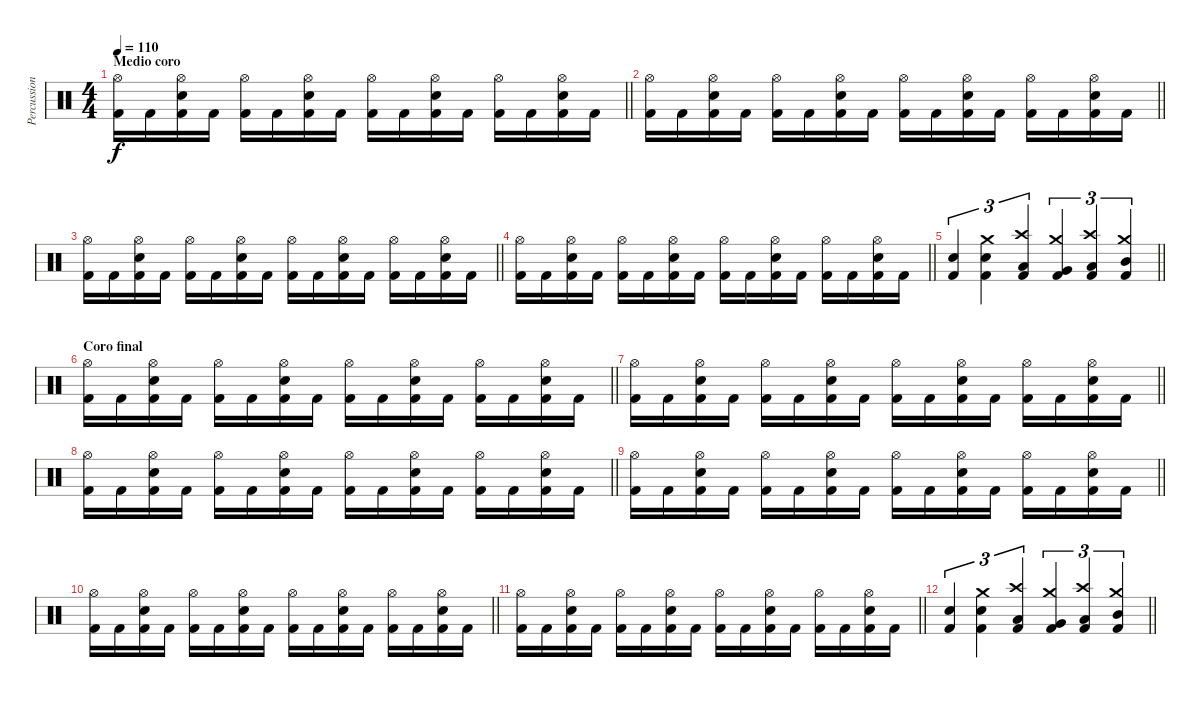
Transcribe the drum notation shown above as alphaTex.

\track ("Percussion" "Percussion") {instrument percussion}
\staff {score}
\articulation defaults
\ts (4 4)
\section ("" "Medio coro")
\tempo 110
\clef neutral
\barLineRight lightlight
\ks c
("Hi-Hat (open)" "Kick (hit) 2").16{dy f} "Kick (hit) 2".16 ("Hi-Hat (open)" "Electric Snare (hit)" "Kick (hit) 2").16 "Kick (hit) 2".16 ("Hi-Hat (open)" "Kick (hit) 2").16 "Kick (hit) 2".16 ("Hi-Hat (open)" "Electric Snare (hit)" "Kick (hit) 2").16 "Kick (hit) 2".16 ("Hi-Hat (open)" "Kick (hit) 2").16 "Kick (hit) 2".16 ("Hi-Hat (open)" "Electric Snare (hit)" "Kick (hit) 2").16 "Kick (hit) 2".16 ("Hi-Hat (open)" "Kick (hit) 2").16 "Kick (hit) 2".16 ("Hi-Hat (open)" "Electric Snare (hit)" "Kick (hit) 2").16 "Kick (hit) 2".16 |
\barLineRight lightlight
("Hi-Hat (open)" "Kick (hit) 2").16 "Kick (hit) 2".16 ("Hi-Hat (open)" "Electric Snare (hit)" "Kick (hit) 2").16 "Kick (hit) 2".16 ("Hi-Hat (open)" "Kick (hit) 2").16 "Kick (hit) 2".16 ("Hi-Hat (open)" "Electric Snare (hit)" "Kick (hit) 2").16 "Kick (hit) 2".16 ("Hi-Hat (open)" "Kick (hit) 2").16 "Kick (hit) 2".16 ("Hi-Hat (open)" "Electric Snare (hit)" "Kick (hit) 2").16 "Kick (hit) 2".16 ("Hi-Hat (open)" "Kick (hit) 2").16 "Kick (hit) 2".16 ("Hi-Hat (open)" "Electric Snare (hit)" "Kick (hit) 2").16 "Kick (hit) 2".16 |
\barLineRight lightlight
("Hi-Hat (open)" "Kick (hit) 2").16 "Kick (hit) 2".16 ("Hi-Hat (open)" "Electric Snare (hit)" "Kick (hit) 2").16 "Kick (hit) 2".16 ("Hi-Hat (open)" "Kick (hit) 2").16 "Kick (hit) 2".16 ("Hi-Hat (open)" "Electric Snare (hit)" "Kick (hit) 2").16 "Kick (hit) 2".16 ("Hi-Hat (open)" "Kick (hit) 2").16 "Kick (hit) 2".16 ("Hi-Hat (open)" "Electric Snare (hit)" "Kick (hit) 2").16 "Kick (hit) 2".16 ("Hi-Hat (open)" "Kick (hit) 2").16 "Kick (hit) 2".16 ("Hi-Hat (open)" "Electric Snare (hit)" "Kick (hit) 2").16 "Kick (hit) 2".16 |
\barLineRight lightlight
("Hi-Hat (open)" "Kick (hit) 2").16 "Kick (hit) 2".16 ("Hi-Hat (open)" "Electric Snare (hit)" "Kick (hit) 2").16 "Kick (hit) 2".16 ("Hi-Hat (open)" "Kick (hit) 2").16 "Kick (hit) 2".16 ("Hi-Hat (open)" "Electric Snare (hit)" "Kick (hit) 2").16 "Kick (hit) 2".16 ("Hi-Hat (open)" "Kick (hit) 2").16 "Kick (hit) 2".16 ("Hi-Hat (open)" "Electric Snare (hit)" "Kick (hit) 2").16 "Kick (hit) 2".16 ("Hi-Hat (open)" "Kick (hit) 2").16 "Kick (hit) 2".16 ("Hi-Hat (open)" "Electric Snare (hit)" "Kick (hit) 2").16 "Kick (hit) 2".16 |
\barLineRight lightlight
("Electric Snare (hit)" "Kick (hit) 2").4{tu (3 2)} ("Crash medium (hit)" "Electric Snare (hit)" "Kick (hit) 2").4{tu (3 2)} ("Crash high (hit)" "Low Floor Tom (hit)" "Kick (hit) 2").4{tu (3 2)} ("Crash medium (hit)" "Very Low Tom (hit)" "Kick (hit) 2").4{tu (3 2)} ("Crash high (hit)" "Low Tom (hit)" "Kick (hit) 2").4{tu (3 2)} ("Crash medium (hit)" "Mid Tom (hit)" "Kick (hit) 2").4{tu (3 2)} |
\section ("" "Coro final")
\barLineRight lightlight
("Hi-Hat (open)" "Kick (hit) 2").16 "Kick (hit) 2".16 ("Hi-Hat (open)" "Electric Snare (hit)" "Kick (hit) 2").16 "Kick (hit) 2".16 ("Hi-Hat (open)" "Kick (hit) 2").16 "Kick (hit) 2".16 ("Hi-Hat (open)" "Electric Snare (hit)" "Kick (hit) 2").16 "Kick (hit) 2".16 ("Hi-Hat (open)" "Kick (hit) 2").16 "Kick (hit) 2".16 ("Hi-Hat (open)" "Electric Snare (hit)" "Kick (hit) 2").16 "Kick (hit) 2".16 ("Hi-Hat (open)" "Kick (hit) 2").16 "Kick (hit) 2".16 ("Hi-Hat (open)" "Electric Snare (hit)" "Kick (hit) 2").16 "Kick (hit) 2".16 |
\barLineRight lightlight
("Hi-Hat (open)" "Kick (hit) 2").16 "Kick (hit) 2".16 ("Hi-Hat (open)" "Electric Snare (hit)" "Kick (hit) 2").16 "Kick (hit) 2".16 ("Hi-Hat (open)" "Kick (hit) 2").16 "Kick (hit) 2".16 ("Hi-Hat (open)" "Electric Snare (hit)" "Kick (hit) 2").16 "Kick (hit) 2".16 ("Hi-Hat (open)" "Kick (hit) 2").16 "Kick (hit) 2".16 ("Hi-Hat (open)" "Electric Snare (hit)" "Kick (hit) 2").16 "Kick (hit) 2".16 ("Hi-Hat (open)" "Kick (hit) 2").16 "Kick (hit) 2".16 ("Hi-Hat (open)" "Electric Snare (hit)" "Kick (hit) 2").16 "Kick (hit) 2".16 |
\barLineRight lightlight
("Hi-Hat (open)" "Kick (hit) 2").16 "Kick (hit) 2".16 ("Hi-Hat (open)" "Electric Snare (hit)" "Kick (hit) 2").16 "Kick (hit) 2".16 ("Hi-Hat (open)" "Kick (hit) 2").16 "Kick (hit) 2".16 ("Hi-Hat (open)" "Electric Snare (hit)" "Kick (hit) 2").16 "Kick (hit) 2".16 ("Hi-Hat (open)" "Kick (hit) 2").16 "Kick (hit) 2".16 ("Hi-Hat (open)" "Electric Snare (hit)" "Kick (hit) 2").16 "Kick (hit) 2".16 ("Hi-Hat (open)" "Kick (hit) 2").16 "Kick (hit) 2".16 ("Hi-Hat (open)" "Electric Snare (hit)" "Kick (hit) 2").16 "Kick (hit) 2".16 |
\barLineRight lightlight
("Hi-Hat (open)" "Kick (hit) 2").16 "Kick (hit) 2".16 ("Hi-Hat (open)" "Electric Snare (hit)" "Kick (hit) 2").16 "Kick (hit) 2".16 ("Hi-Hat (open)" "Kick (hit) 2").16 "Kick (hit) 2".16 ("Hi-Hat (open)" "Electric Snare (hit)" "Kick (hit) 2").16 "Kick (hit) 2".16 ("Hi-Hat (open)" "Kick (hit) 2").16 "Kick (hit) 2".16 ("Hi-Hat (open)" "Electric Snare (hit)" "Kick (hit) 2").16 "Kick (hit) 2".16 ("Hi-Hat (open)" "Kick (hit) 2").16 "Kick (hit) 2".16 ("Hi-Hat (open)" "Electric Snare (hit)" "Kick (hit) 2").16 "Kick (hit) 2".16 |
\barLineRight lightlight
("Hi-Hat (open)" "Kick (hit) 2").16 "Kick (hit) 2".16 ("Hi-Hat (open)" "Electric Snare (hit)" "Kick (hit) 2").16 "Kick (hit) 2".16 ("Hi-Hat (open)" "Kick (hit) 2").16 "Kick (hit) 2".16 ("Hi-Hat (open)" "Electric Snare (hit)" "Kick (hit) 2").16 "Kick (hit) 2".16 ("Hi-Hat (open)" "Kick (hit) 2").16 "Kick (hit) 2".16 ("Hi-Hat (open)" "Electric Snare (hit)" "Kick (hit) 2").16 "Kick (hit) 2".16 ("Hi-Hat (open)" "Kick (hit) 2").16 "Kick (hit) 2".16 ("Hi-Hat (open)" "Electric Snare (hit)" "Kick (hit) 2").16 "Kick (hit) 2".16 |
\barLineRight lightlight
("Hi-Hat (open)" "Kick (hit) 2").16 "Kick (hit) 2".16 ("Hi-Hat (open)" "Electric Snare (hit)" "Kick (hit) 2").16 "Kick (hit) 2".16 ("Hi-Hat (open)" "Kick (hit) 2").16 "Kick (hit) 2".16 ("Hi-Hat (open)" "Electric Snare (hit)" "Kick (hit) 2").16 "Kick (hit) 2".16 ("Hi-Hat (open)" "Kick (hit) 2").16 "Kick (hit) 2".16 ("Hi-Hat (open)" "Electric Snare (hit)" "Kick (hit) 2").16 "Kick (hit) 2".16 ("Hi-Hat (open)" "Kick (hit) 2").16 "Kick (hit) 2".16 ("Hi-Hat (open)" "Electric Snare (hit)" "Kick (hit) 2").16 "Kick (hit) 2".16 |
\barLineRight lightlight
("Electric Snare (hit)" "Kick (hit) 2").4{tu (3 2)} ("Crash medium (hit)" "Electric Snare (hit)" "Kick (hit) 2").4{tu (3 2)} ("Crash high (hit)" "Low Floor Tom (hit)" "Kick (hit) 2").4{tu (3 2)} ("Crash medium (hit)" "Very Low Tom (hit)" "Kick (hit) 2").4{tu (3 2)} ("Crash high (hit)" "Low Tom (hit)" "Kick (hit) 2").4{tu (3 2)} ("Crash medium (hit)" "Mid Tom (hit)" "Kick (hit) 2").4{tu (3 2)}
